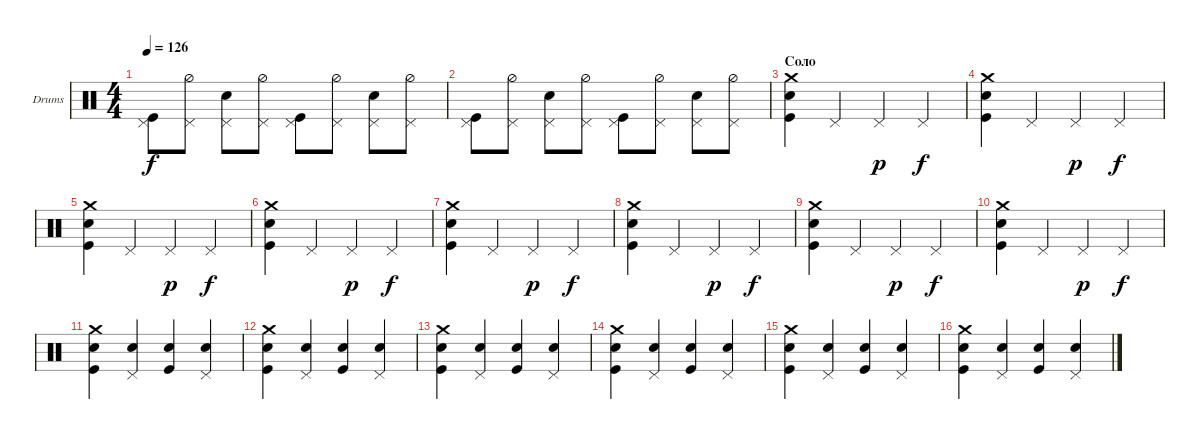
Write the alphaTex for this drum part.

\defaultSystemsLayout 4
\bracketExtendMode groupsimilarinstruments
\firstSystemTrackNameOrientation horizontal
\otherSystemsTrackNameOrientation horizontal
\track ("Е. Кулаков" "Drums") {instrument percussion}
\staff {score}
\articulation defaults
\ts (4 4)
\tempo 126
\clef neutral
\ks c
("Kick (hit)" "Pedal Hi-Hat (hit)").8{dy f} ("Hi-Hat (half)" "Pedal Hi-Hat (hit)").8 ("Pedal Hi-Hat (hit)" "Snare (hit) 2").8 ("Hi-Hat (half)" "Pedal Hi-Hat (hit)").8 ("Kick (hit)" "Pedal Hi-Hat (hit)").8 ("Hi-Hat (half)" "Pedal Hi-Hat (hit)").8 ("Pedal Hi-Hat (hit)" "Snare (hit) 2").8 ("Hi-Hat (half)" "Pedal Hi-Hat (hit)").8 |
("Kick (hit)" "Pedal Hi-Hat (hit)").8 ("Hi-Hat (half)" "Pedal Hi-Hat (hit)").8 ("Pedal Hi-Hat (hit)" "Snare (hit) 2").8 ("Hi-Hat (half)" "Pedal Hi-Hat (hit)").8 ("Kick (hit)" "Pedal Hi-Hat (hit)").8 ("Hi-Hat (half)" "Pedal Hi-Hat (hit)").8 ("Pedal Hi-Hat (hit)" "Snare (hit) 2").8 ("Hi-Hat (half)" "Pedal Hi-Hat (hit)").8 |
\section ("" "Соло")
("Snare (hit) 2" "Kick (hit)" "Crash medium (hit)").4 "Pedal Hi-Hat (hit)".4 "Pedal Hi-Hat (hit)".4{dy p} "Pedal Hi-Hat (hit)".4{dy f} |
("Snare (hit) 2" "Kick (hit)" "Crash medium (hit)").4 "Pedal Hi-Hat (hit)".4 "Pedal Hi-Hat (hit)".4{dy p} "Pedal Hi-Hat (hit)".4{dy f} |
("Snare (hit) 2" "Kick (hit)" "Crash medium (hit)").4 "Pedal Hi-Hat (hit)".4 "Pedal Hi-Hat (hit)".4{dy p} "Pedal Hi-Hat (hit)".4{dy f} |
("Snare (hit) 2" "Kick (hit)" "Crash medium (hit)").4 "Pedal Hi-Hat (hit)".4 "Pedal Hi-Hat (hit)".4{dy p} "Pedal Hi-Hat (hit)".4{dy f} |
("Snare (hit) 2" "Kick (hit)" "Crash medium (hit)").4 "Pedal Hi-Hat (hit)".4 "Pedal Hi-Hat (hit)".4{dy p} "Pedal Hi-Hat (hit)".4{dy f} |
("Snare (hit) 2" "Kick (hit)" "Crash medium (hit)").4 "Pedal Hi-Hat (hit)".4 "Pedal Hi-Hat (hit)".4{dy p} "Pedal Hi-Hat (hit)".4{dy f} |
("Snare (hit) 2" "Kick (hit)" "Crash medium (hit)").4 "Pedal Hi-Hat (hit)".4 "Pedal Hi-Hat (hit)".4{dy p} "Pedal Hi-Hat (hit)".4{dy f} |
("Snare (hit) 2" "Kick (hit)" "Crash medium (hit)").4 "Pedal Hi-Hat (hit)".4 "Pedal Hi-Hat (hit)".4{dy p} "Pedal Hi-Hat (hit)".4{dy f} |
("Snare (hit) 2" "Kick (hit)" "Crash medium (hit)").4 ("Pedal Hi-Hat (hit)" "Snare (hit) 2").4 ("Snare (hit) 2" "Kick (hit)").4 ("Pedal Hi-Hat (hit)" "Snare (hit) 2").4 |
("Snare (hit) 2" "Kick (hit)" "Crash medium (hit)").4 ("Pedal Hi-Hat (hit)" "Snare (hit) 2").4 ("Snare (hit) 2" "Kick (hit)").4 ("Pedal Hi-Hat (hit)" "Snare (hit) 2").4 |
("Snare (hit) 2" "Kick (hit)" "Crash medium (hit)").4 ("Pedal Hi-Hat (hit)" "Snare (hit) 2").4 ("Snare (hit) 2" "Kick (hit)").4 ("Pedal Hi-Hat (hit)" "Snare (hit) 2").4 |
("Snare (hit) 2" "Kick (hit)" "Crash medium (hit)").4 ("Pedal Hi-Hat (hit)" "Snare (hit) 2").4 ("Snare (hit) 2" "Kick (hit)").4 ("Pedal Hi-Hat (hit)" "Snare (hit) 2").4 |
("Snare (hit) 2" "Kick (hit)" "Crash medium (hit)").4 ("Pedal Hi-Hat (hit)" "Snare (hit) 2").4 ("Snare (hit) 2" "Kick (hit)").4 ("Pedal Hi-Hat (hit)" "Snare (hit) 2").4 |
("Snare (hit) 2" "Kick (hit)" "Crash medium (hit)").4 ("Pedal Hi-Hat (hit)" "Snare (hit) 2").4 ("Snare (hit) 2" "Kick (hit)").4 ("Pedal Hi-Hat (hit)" "Snare (hit) 2").4
